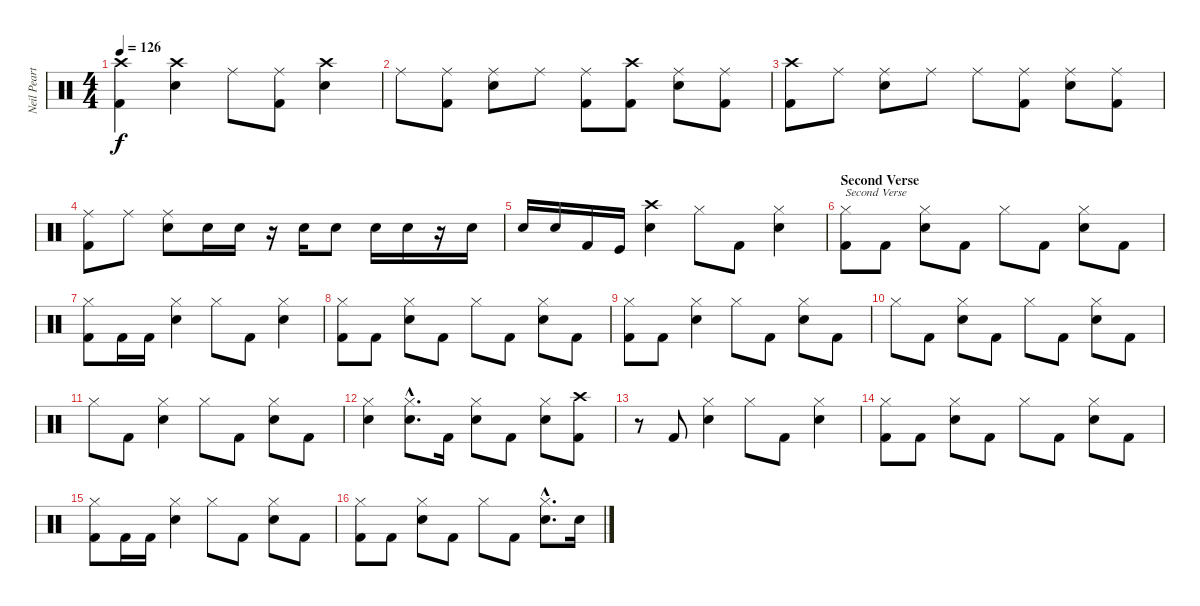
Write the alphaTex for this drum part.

\track ("Neil Peart" "Neil Peart") {instrument percussion}
\staff {score}
\articulation defaults
\ts (4 4)
\tempo 126
\clef neutral
\ks c
("Crash high (hit)" "Kick (hit) 2").4{dy f} ("Electric Snare (hit)" "Crash high (hit)").4 "Ride (middle)".8 ("Ride (middle)" "Kick (hit) 2").8 ("Electric Snare (hit)" "Crash high (hit)").4 |
"Ride (middle)".8 ("Ride (middle)" "Kick (hit) 2").8 ("Electric Snare (hit)" "Ride (middle)").8 "Ride (middle)".8 ("Ride (middle)" "Kick (hit) 2").8 ("Crash high (hit)" "Kick (hit) 2").8 ("Electric Snare (hit)" "Ride (middle)").8 ("Ride (middle)" "Kick (hit) 2").8 |
("Crash high (hit)" "Kick (hit) 2").8 "Ride (middle)".8 ("Electric Snare (hit)" "Ride (middle)").8 "Ride (middle)".8 "Ride (middle)".8 ("Ride (middle)" "Kick (hit) 2").8 ("Electric Snare (hit)" "Ride (middle)").8 ("Ride (middle)" "Kick (hit) 2").8 |
("Ride (middle)" "Kick (hit) 2").8 "Ride (middle)".8 ("Electric Snare (hit)" "Ride (middle)").8 "Electric Snare (hit)".16 "Electric Snare (hit)".16 r.16 "Electric Snare (hit)".16 "Electric Snare (hit)".8 "Electric Snare (hit)".16 "Electric Snare (hit)".16 r.16 "Electric Snare (hit)".16 |
"Electric Snare (hit)".16 "Electric Snare (hit)".16 "Kick (hit) 2".16 "Kick (hit)".16 ("Electric Snare (hit)" "Crash high (hit)").4 "Hi-Hat (closed)".8 "Kick (hit) 2".8 ("Electric Snare (hit)" "Hi-Hat (closed)").4 |
\section ("" "Second Verse")
("Hi-Hat (closed)" "Kick (hit) 2").8{txt "Second Verse"} "Kick (hit) 2".8 ("Electric Snare (hit)" "Hi-Hat (closed)").8 "Kick (hit) 2".8 "Hi-Hat (closed)".8 "Kick (hit) 2".8 ("Electric Snare (hit)" "Hi-Hat (closed)").8 "Kick (hit) 2".8 |
("Hi-Hat (closed)" "Kick (hit) 2").8 "Kick (hit) 2".16 "Kick (hit) 2".16 ("Electric Snare (hit)" "Hi-Hat (closed)").4 "Hi-Hat (closed)".8 "Kick (hit) 2".8 ("Electric Snare (hit)" "Hi-Hat (closed)").4 |
("Hi-Hat (closed)" "Kick (hit) 2").8 "Kick (hit) 2".8 ("Electric Snare (hit)" "Hi-Hat (closed)").8 "Kick (hit) 2".8 "Hi-Hat (closed)".8 "Kick (hit) 2".8 ("Electric Snare (hit)" "Hi-Hat (closed)").8 "Kick (hit) 2".8 |
("Hi-Hat (closed)" "Kick (hit) 2").8 "Kick (hit) 2".8 ("Electric Snare (hit)" "Hi-Hat (closed)").4 "Hi-Hat (closed)".8 "Kick (hit) 2".8 ("Electric Snare (hit)" "Hi-Hat (closed)").8 "Kick (hit) 2".8 |
"Hi-Hat (closed)".8 "Kick (hit) 2".8 ("Electric Snare (hit)" "Hi-Hat (closed)").8 "Kick (hit) 2".8 "Hi-Hat (closed)".8 "Kick (hit) 2".8 ("Electric Snare (hit)" "Hi-Hat (closed)").8 "Kick (hit) 2".8 |
"Hi-Hat (closed)".8 "Kick (hit) 2".8 ("Electric Snare (hit)" "Hi-Hat (closed)").4 "Hi-Hat (closed)".8 "Kick (hit) 2".8 ("Electric Snare (hit)" "Hi-Hat (closed)").8 "Kick (hit) 2".8 |
("Electric Snare (hit)" "Hi-Hat (closed)").4 ("Electric Snare (hit)"{hac} "Hi-Hat (closed)"{hac}).8{d} "Kick (hit) 2".16 ("Electric Snare (hit)" "Hi-Hat (closed)").8 "Kick (hit) 2".8 ("Electric Snare (hit)" "Hi-Hat (closed)").8 ("Crash high (hit)" "Kick (hit) 2").8 |
r.8 "Kick (hit) 2".8 ("Electric Snare (hit)" "Hi-Hat (closed)").4 "Hi-Hat (closed)".8 "Kick (hit) 2".8 ("Electric Snare (hit)" "Hi-Hat (closed)").4 |
("Hi-Hat (closed)" "Kick (hit) 2").8 "Kick (hit) 2".8 ("Electric Snare (hit)" "Hi-Hat (closed)").8 "Kick (hit) 2".8 "Hi-Hat (closed)".8 "Kick (hit) 2".8 ("Electric Snare (hit)" "Hi-Hat (closed)").8 "Kick (hit) 2".8 |
("Hi-Hat (closed)" "Kick (hit) 2").8 "Kick (hit) 2".16 "Kick (hit) 2".16 ("Electric Snare (hit)" "Hi-Hat (closed)").4 "Hi-Hat (closed)".8 "Kick (hit) 2".8 ("Electric Snare (hit)" "Hi-Hat (closed)").8 "Kick (hit) 2".8 |
("Hi-Hat (closed)" "Kick (hit) 2").8 "Kick (hit) 2".8 ("Electric Snare (hit)" "Hi-Hat (closed)").8 "Kick (hit) 2".8 "Hi-Hat (closed)".8 "Kick (hit) 2".8 ("Electric Snare (hit)"{hac} "Hi-Hat (closed)"{hac}).8{d} "Electric Snare (hit)".16
